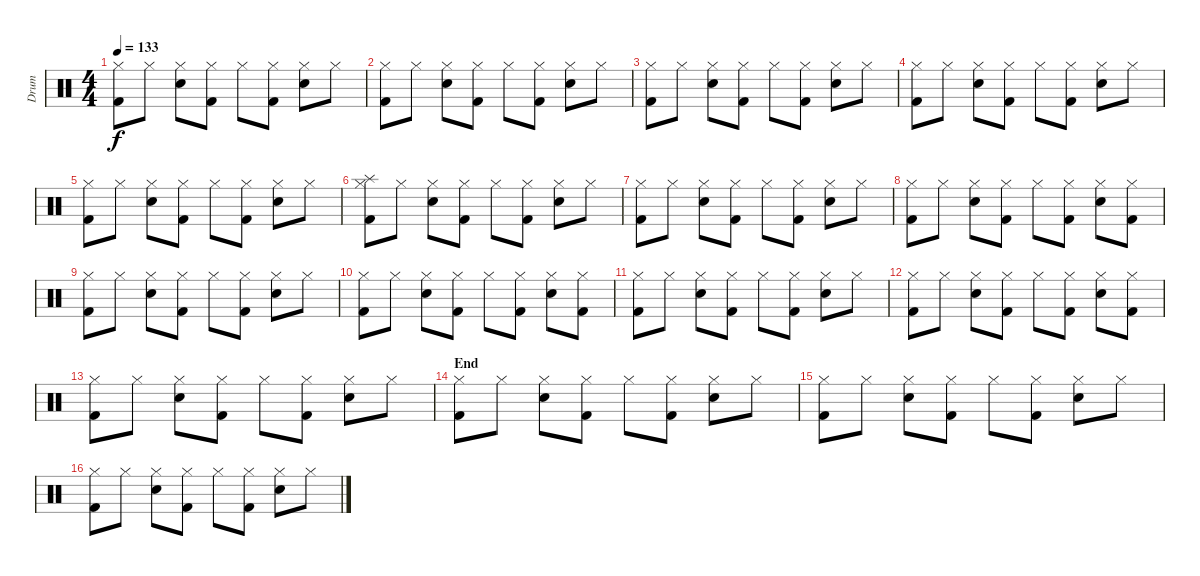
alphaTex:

\track ("Drum" "Drum") {instrument percussion}
\staff {score}
\articulation defaults
\ts (4 4)
\tempo 133
\clef neutral
\ks c
("Hi-Hat (closed)" "Kick (hit) 2").8{dy f} "Hi-Hat (closed)".8 ("Snare (hit) 2" "Hi-Hat (closed)").8 ("Hi-Hat (closed)" "Kick (hit) 2").8 "Hi-Hat (closed)".8 ("Hi-Hat (closed)" "Kick (hit) 2").8 ("Snare (hit) 2" "Hi-Hat (closed)").8 "Hi-Hat (closed)".8 |
("Hi-Hat (closed)" "Kick (hit) 2").8 "Hi-Hat (closed)".8 ("Snare (hit) 2" "Hi-Hat (closed)").8 ("Hi-Hat (closed)" "Kick (hit) 2").8 "Hi-Hat (closed)".8 ("Hi-Hat (closed)" "Kick (hit) 2").8 ("Snare (hit) 2" "Hi-Hat (closed)").8 "Hi-Hat (closed)".8 |
("Hi-Hat (closed)" "Kick (hit) 2").8 "Hi-Hat (closed)".8 ("Snare (hit) 2" "Hi-Hat (closed)").8 ("Hi-Hat (closed)" "Kick (hit) 2").8 "Hi-Hat (closed)".8 ("Hi-Hat (closed)" "Kick (hit) 2").8 ("Snare (hit) 2" "Hi-Hat (closed)").8 "Hi-Hat (closed)".8 |
("Hi-Hat (closed)" "Kick (hit) 2").8 "Hi-Hat (closed)".8 ("Snare (hit) 2" "Hi-Hat (closed)").8 ("Hi-Hat (closed)" "Kick (hit) 2").8 "Hi-Hat (closed)".8 ("Hi-Hat (closed)" "Kick (hit) 2").8 ("Snare (hit) 2" "Hi-Hat (closed)").8 "Hi-Hat (closed)".8 |
("Hi-Hat (closed)" "Kick (hit) 2").8 "Hi-Hat (closed)".8 ("Snare (hit) 2" "Hi-Hat (closed)").8 ("Hi-Hat (closed)" "Kick (hit) 2").8 "Hi-Hat (closed)".8 ("Hi-Hat (closed)" "Kick (hit) 2").8 ("Snare (hit) 2" "Hi-Hat (closed)").8 "Hi-Hat (closed)".8 |
("Splash (hit)" "Hi-Hat (closed)" "Kick (hit) 2").8 "Hi-Hat (closed)".8 ("Snare (hit) 2" "Hi-Hat (closed)").8 ("Hi-Hat (closed)" "Kick (hit) 2").8 "Hi-Hat (closed)".8 ("Hi-Hat (closed)" "Kick (hit) 2").8 ("Snare (hit) 2" "Hi-Hat (closed)").8 "Hi-Hat (closed)".8 |
("Hi-Hat (closed)" "Kick (hit) 2").8 "Hi-Hat (closed)".8 ("Snare (hit) 2" "Hi-Hat (closed)").8 ("Hi-Hat (closed)" "Kick (hit) 2").8 "Hi-Hat (closed)".8 ("Hi-Hat (closed)" "Kick (hit) 2").8 ("Snare (hit) 2" "Hi-Hat (closed)").8 "Hi-Hat (closed)".8 |
("Hi-Hat (closed)" "Kick (hit) 2").8 "Hi-Hat (closed)".8 ("Snare (hit) 2" "Hi-Hat (closed)").8 ("Hi-Hat (closed)" "Kick (hit) 2").8 "Hi-Hat (closed)".8 ("Hi-Hat (closed)" "Kick (hit) 2").8 ("Snare (hit) 2" "Hi-Hat (closed)").8 ("Hi-Hat (closed)" "Kick (hit) 2").8 |
("Hi-Hat (closed)" "Kick (hit) 2").8 "Hi-Hat (closed)".8 ("Snare (hit) 2" "Hi-Hat (closed)").8 ("Hi-Hat (closed)" "Kick (hit) 2").8 "Hi-Hat (closed)".8 ("Hi-Hat (closed)" "Kick (hit) 2").8 ("Snare (hit) 2" "Hi-Hat (closed)").8 "Hi-Hat (closed)".8 |
("Hi-Hat (closed)" "Kick (hit) 2").8 "Hi-Hat (closed)".8 ("Snare (hit) 2" "Hi-Hat (closed)").8 ("Hi-Hat (closed)" "Kick (hit) 2").8 "Hi-Hat (closed)".8 ("Hi-Hat (closed)" "Kick (hit) 2").8 ("Snare (hit) 2" "Hi-Hat (closed)").8 ("Hi-Hat (closed)" "Kick (hit) 2").8 |
("Hi-Hat (closed)" "Kick (hit) 2").8 "Hi-Hat (closed)".8 ("Snare (hit) 2" "Hi-Hat (closed)").8 ("Hi-Hat (closed)" "Kick (hit) 2").8 "Hi-Hat (closed)".8 ("Hi-Hat (closed)" "Kick (hit) 2").8 ("Snare (hit) 2" "Hi-Hat (closed)").8 "Hi-Hat (closed)".8 |
("Hi-Hat (closed)" "Kick (hit) 2").8 "Hi-Hat (closed)".8 ("Snare (hit) 2" "Hi-Hat (closed)").8 ("Hi-Hat (closed)" "Kick (hit) 2").8 "Hi-Hat (closed)".8 ("Hi-Hat (closed)" "Kick (hit) 2").8 ("Snare (hit) 2" "Hi-Hat (closed)").8 ("Hi-Hat (closed)" "Kick (hit) 2").8 |
("Hi-Hat (closed)" "Kick (hit) 2").8 "Hi-Hat (closed)".8 ("Snare (hit) 2" "Hi-Hat (closed)").8 ("Hi-Hat (closed)" "Kick (hit) 2").8 "Hi-Hat (closed)".8 ("Hi-Hat (closed)" "Kick (hit) 2").8 ("Snare (hit) 2" "Hi-Hat (closed)").8 "Hi-Hat (closed)".8 |
\section ("" "End")
("Hi-Hat (closed)" "Kick (hit) 2").8 "Hi-Hat (closed)".8 ("Snare (hit) 2" "Hi-Hat (closed)").8 ("Hi-Hat (closed)" "Kick (hit) 2").8 "Hi-Hat (closed)".8 ("Hi-Hat (closed)" "Kick (hit) 2").8 ("Snare (hit) 2" "Hi-Hat (closed)").8 "Hi-Hat (closed)".8 |
("Hi-Hat (closed)" "Kick (hit) 2").8 "Hi-Hat (closed)".8 ("Snare (hit) 2" "Hi-Hat (closed)").8 ("Hi-Hat (closed)" "Kick (hit) 2").8 "Hi-Hat (closed)".8 ("Hi-Hat (closed)" "Kick (hit) 2").8 ("Snare (hit) 2" "Hi-Hat (closed)").8 "Hi-Hat (closed)".8 |
("Hi-Hat (closed)" "Kick (hit) 2").8 "Hi-Hat (closed)".8 ("Snare (hit) 2" "Hi-Hat (closed)").8 ("Hi-Hat (closed)" "Kick (hit) 2").8 "Hi-Hat (closed)".8 ("Hi-Hat (closed)" "Kick (hit) 2").8 ("Snare (hit) 2" "Hi-Hat (closed)").8 "Hi-Hat (closed)".8
